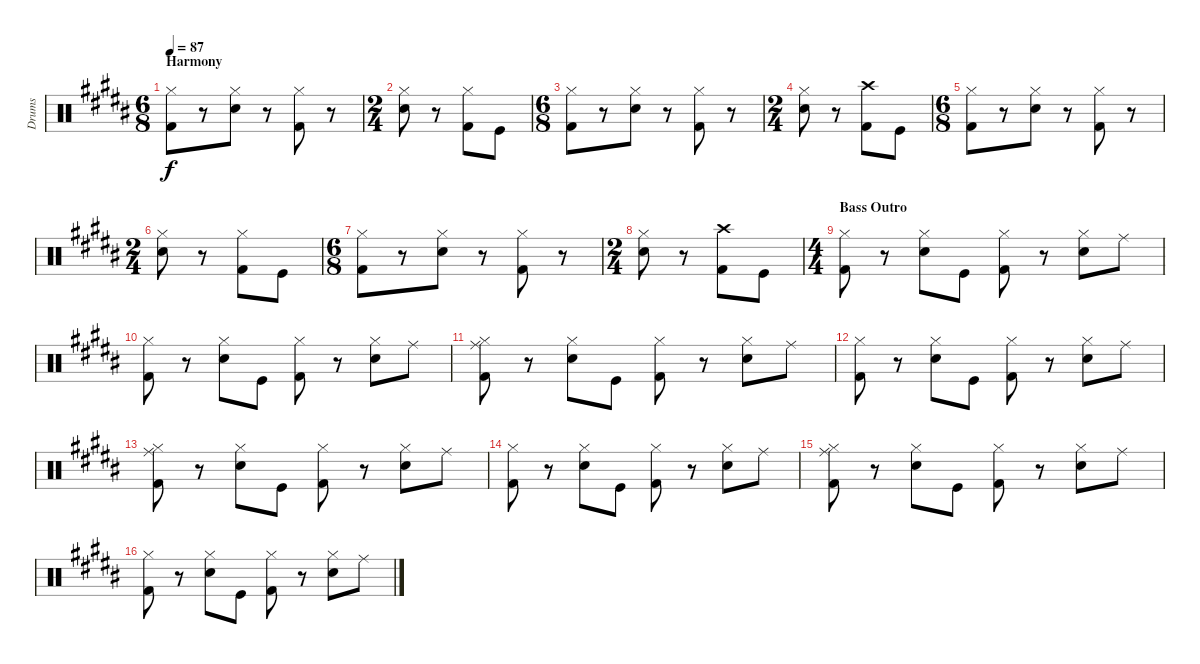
\track ("Drums" "Drums") {instrument percussion}
\staff {score}
\articulation defaults
\ts (6 8)
\section ("" "Harmony")
\tempo 87
\clef neutral
\ks b
("Hi-Hat (closed)" "Kick (hit) 2").8{dy f} r.8 ("Hi-Hat (closed)" "Snare (hit) 2").8 r.8 ("Hi-Hat (closed)" "Kick (hit) 2").8 r.8 |
\ts (2 4)
("Hi-Hat (closed)" "Snare (hit) 2").8 r.8 ("Hi-Hat (closed)" "Kick (hit) 2").8 "Kick (hit)".8 |
\ts (6 8)
("Hi-Hat (closed)" "Kick (hit) 2").8 r.8 ("Hi-Hat (closed)" "Snare (hit) 2").8 r.8 ("Hi-Hat (closed)" "Kick (hit) 2").8 r.8 |
\ts (2 4)
("Hi-Hat (closed)" "Snare (hit) 2").8 r.8 ("Crash high (hit)" "Kick (hit) 2").8 "Kick (hit)".8 |
\ts (6 8)
("Hi-Hat (closed)" "Kick (hit) 2").8 r.8 ("Hi-Hat (closed)" "Snare (hit) 2").8 r.8 ("Hi-Hat (closed)" "Kick (hit) 2").8 r.8 |
\ts (2 4)
("Hi-Hat (closed)" "Snare (hit) 2").8 r.8 ("Hi-Hat (closed)" "Kick (hit) 2").8 "Kick (hit)".8 |
\ts (6 8)
("Hi-Hat (closed)" "Kick (hit) 2").8 r.8 ("Hi-Hat (closed)" "Snare (hit) 2").8 r.8 ("Hi-Hat (closed)" "Kick (hit) 2").8 r.8 |
\ts (2 4)
("Hi-Hat (closed)" "Snare (hit) 2").8 r.8 ("Crash high (hit)" "Kick (hit) 2").8 "Kick (hit)".8 |
\ts (4 4)
\section ("" "Bass Outro")
("Hi-Hat (closed)" "Kick (hit) 2").8 r.8 ("Hi-Hat (closed)" "Snare (hit) 2").8 "Kick (hit)".8 ("Hi-Hat (closed)" "Kick (hit) 2").8 r.8 ("Hi-Hat (closed)" "Snare (hit) 2").8 "Ride (middle)".8 |
("Hi-Hat (closed)" "Kick (hit) 2").8 r.8 ("Hi-Hat (closed)" "Snare (hit) 2").8 "Kick (hit)".8 ("Hi-Hat (closed)" "Kick (hit) 2").8 r.8 ("Hi-Hat (closed)" "Snare (hit) 2").8 "Ride (middle)".8 |
("Hi-Hat (closed)" "Ride (middle)" "Kick (hit) 2").8 r.8 ("Hi-Hat (closed)" "Snare (hit) 2").8 "Kick (hit)".8 ("Hi-Hat (closed)" "Kick (hit) 2").8 r.8 ("Hi-Hat (closed)" "Snare (hit) 2").8 "Ride (middle)".8 |
("Hi-Hat (closed)" "Kick (hit) 2").8 r.8 ("Hi-Hat (closed)" "Snare (hit) 2").8 "Kick (hit)".8 ("Hi-Hat (closed)" "Kick (hit) 2").8 r.8 ("Hi-Hat (closed)" "Snare (hit) 2").8 "Ride (middle)".8 |
("Hi-Hat (closed)" "Ride (middle)" "Kick (hit) 2").8 r.8 ("Hi-Hat (closed)" "Snare (hit) 2").8 "Kick (hit)".8 ("Hi-Hat (closed)" "Kick (hit) 2").8 r.8 ("Hi-Hat (closed)" "Snare (hit) 2").8 "Ride (middle)".8 |
("Hi-Hat (closed)" "Kick (hit) 2").8 r.8 ("Hi-Hat (closed)" "Snare (hit) 2").8 "Kick (hit)".8 ("Hi-Hat (closed)" "Kick (hit) 2").8 r.8 ("Hi-Hat (closed)" "Snare (hit) 2").8 "Ride (middle)".8 |
("Hi-Hat (closed)" "Ride (middle)" "Kick (hit) 2").8 r.8 ("Hi-Hat (closed)" "Snare (hit) 2").8 "Kick (hit)".8 ("Hi-Hat (closed)" "Kick (hit) 2").8 r.8 ("Hi-Hat (closed)" "Snare (hit) 2").8 "Ride (middle)".8 |
("Hi-Hat (closed)" "Kick (hit) 2").8 r.8 ("Hi-Hat (closed)" "Snare (hit) 2").8 "Kick (hit)".8 ("Hi-Hat (closed)" "Kick (hit) 2").8 r.8 ("Hi-Hat (closed)" "Snare (hit) 2").8 "Ride (middle)".8
